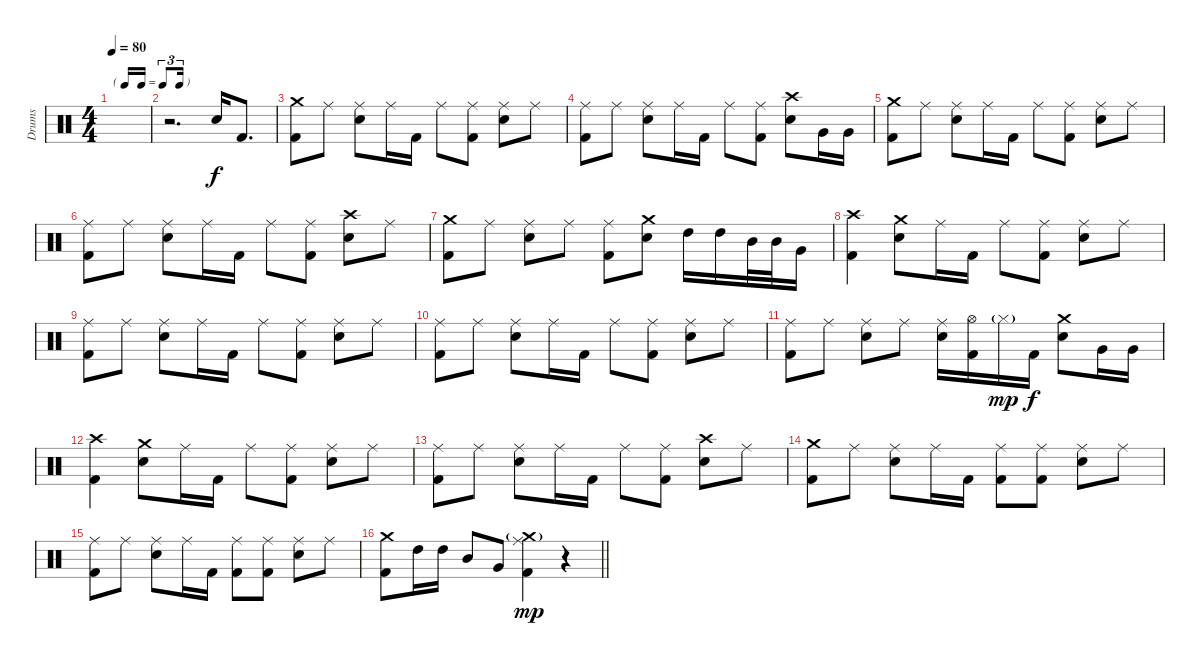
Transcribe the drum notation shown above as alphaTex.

\track ("Drums" "Drums") {instrument percussion}
\staff {score}
\articulation defaults
\ts (4 4)
\tf triplet16th
\tempo 80
\clef neutral
\ks c
|
r.2{d} "Snare (hit) 2".16 "Kick (hit) 2".8{d} |
("Crash medium (hit)" "Kick (hit) 2").8 "Ride (middle)".8 ("Ride (middle)" "Snare (hit) 2").8 "Ride (middle)".16 "Kick (hit) 2".16 "Ride (middle)".8 ("Ride (middle)" "Kick (hit) 2").8 ("Ride (middle)" "Snare (hit) 2").8 "Ride (middle)".8 |
("Ride (middle)" "Kick (hit) 2").8 "Ride (middle)".8 ("Ride (middle)" "Snare (hit) 2").8 "Ride (middle)".16 "Kick (hit) 2".16 "Ride (middle)".8 ("Ride (middle)" "Kick (hit) 2").8 ("Crash high (hit)" "Snare (hit) 2").8 "Very Low Tom (hit)".16 "Very Low Tom (hit)".16 |
("Crash medium (hit)" "Kick (hit) 2").8 "Ride (middle)".8 ("Ride (middle)" "Snare (hit) 2").8 "Ride (middle)".16 "Kick (hit) 2".16 "Ride (middle)".8 ("Ride (middle)" "Kick (hit) 2").8 ("Ride (middle)" "Snare (hit) 2").8 "Ride (middle)".8 |
("Ride (middle)" "Kick (hit) 2").8 "Ride (middle)".8 ("Ride (middle)" "Snare (hit) 2").8 "Ride (middle)".16 "Kick (hit) 2".16 "Ride (middle)".8 ("Ride (middle)" "Kick (hit) 2").8 ("Crash high (hit)" "Snare (hit) 2").8 "Ride (middle)".8 |
("Crash medium (hit)" "Kick (hit) 2").8 "Ride (middle)".8 ("Ride (middle)" "Snare (hit) 2").8 "Ride (middle)".8 ("Ride (middle)" "Kick (hit) 2").8 ("Crash medium (hit)" "Snare (hit) 2").8 "High Tom (hit)".16 "High Tom (hit)".16 "Mid Tom (hit)".32 "Mid Tom (hit)".32 "Very Low Tom (hit)".16 |
("Crash high (hit)" "Kick (hit) 2").4 ("Crash medium (hit)" "Snare (hit) 2").8 "Ride (middle)".16 "Kick (hit) 2".16 "Ride (middle)".8 ("Ride (middle)" "Kick (hit) 2").8 ("Ride (middle)" "Snare (hit) 2").8 "Ride (middle)".8 |
("Ride (middle)" "Kick (hit) 2").8 "Ride (middle)".8 ("Ride (middle)" "Snare (hit) 2").8 "Ride (middle)".16 "Kick (hit) 2".16 "Ride (middle)".8 ("Ride (middle)" "Kick (hit) 2").8 ("Ride (middle)" "Snare (hit) 2").8 "Ride (middle)".8 |
("Ride (middle)" "Kick (hit) 2").8 "Ride (middle)".8 ("Ride (middle)" "Snare (hit) 2").8 "Ride (middle)".16 "Kick (hit) 2".16 "Ride (middle)".8 ("Ride (middle)" "Kick (hit) 2").8 ("Ride (middle)" "Snare (hit) 2").8 "Ride (middle)".8 |
("Ride (middle)" "Kick (hit) 2").8 "Ride (middle)".8 ("Ride (middle)" "Snare (hit) 2").8 "Ride (middle)".8 ("Ride (middle)" "Snare (hit) 2").16 ("Hi-Hat (open)" "Kick (hit) 2").16 "Hi-Hat (closed)"{g}.16{dy mp} "Kick (hit) 2".16{dy f} ("Crash medium (hit)" "Snare (hit) 2").8 "Very Low Tom (hit)".16 "Very Low Tom (hit)".16 |
("Crash high (hit)" "Kick (hit) 2").4 ("Crash medium (hit)" "Snare (hit) 2").8 "Ride (middle)".16 "Kick (hit) 2".16 "Ride (middle)".8 ("Ride (middle)" "Kick (hit) 2").8 ("Ride (middle)" "Snare (hit) 2").8 "Ride (middle)".8 |
("Ride (middle)" "Kick (hit) 2").8 "Ride (middle)".8 ("Ride (middle)" "Snare (hit) 2").8 "Ride (middle)".16 "Kick (hit) 2".16 "Ride (middle)".8 ("Ride (middle)" "Kick (hit) 2").8 ("Crash high (hit)" "Snare (hit) 2").8 "Ride (middle)".8 |
("Crash medium (hit)" "Kick (hit) 2").8 "Ride (middle)".8 ("Ride (middle)" "Snare (hit) 2").8 "Ride (middle)".16 "Kick (hit) 2".16 ("Ride (middle)" "Kick (hit) 2").8 ("Ride (middle)" "Kick (hit) 2").8 ("Ride (middle)" "Snare (hit) 2").8 "Ride (middle)".8 |
("Ride (middle)" "Kick (hit) 2").8 "Ride (middle)".8 ("Ride (middle)" "Snare (hit) 2").8 "Ride (middle)".16 "Kick (hit) 2".16 ("Ride (middle)" "Kick (hit) 2").8 ("Ride (middle)" "Kick (hit) 2").8 ("Ride (middle)" "Snare (hit) 2").8 "Ride (middle)".8 |
\barLineRight lightlight
("Crash medium (hit)" "Kick (hit) 2").8 "High Tom (hit)".16 "High Tom (hit)".16 "Mid Tom (hit)".8 "Very Low Tom (hit)".8 ("Ride (middle)" "Crash medium (hit)"{g} "Kick (hit) 2").4{dy mp} r.4
